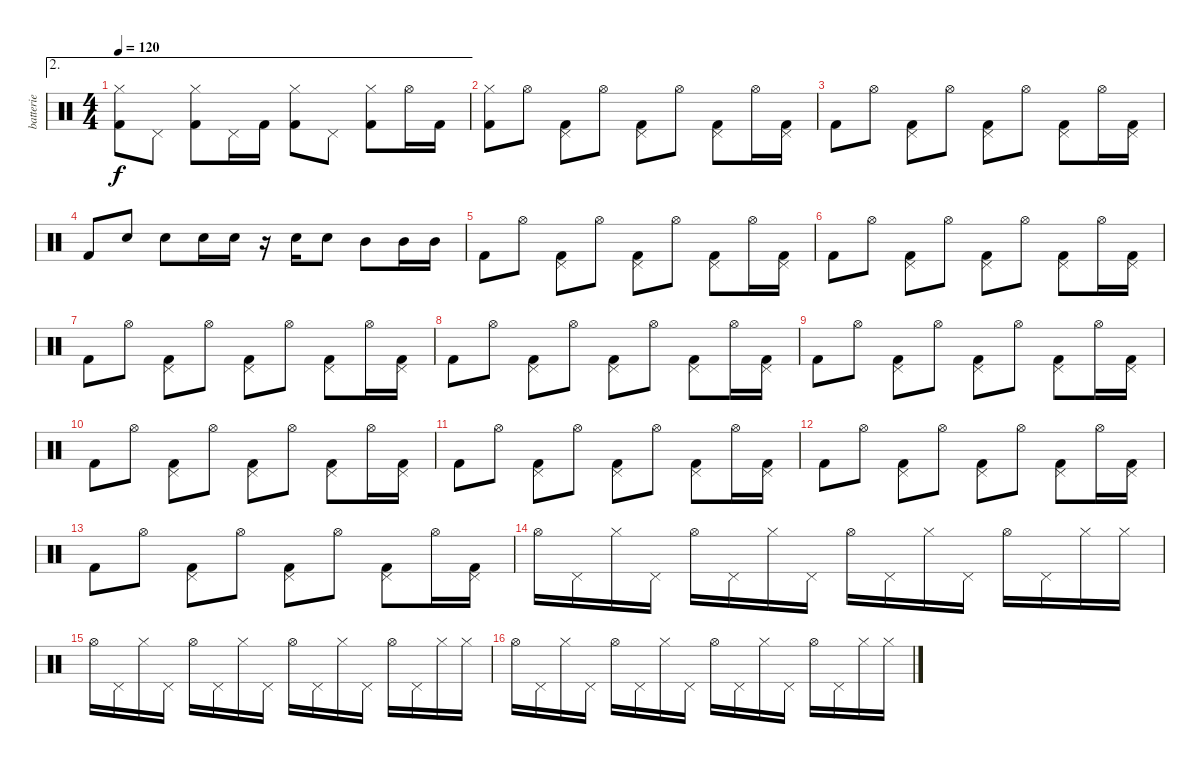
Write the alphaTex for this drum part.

\track ("batterie" "batterie") {instrument percussion}
\staff {score}
\articulation defaults
\ae 2
\ts (4 4)
\tempo 120
\clef neutral
\ks c
("Kick (hit) 2" "Hi-Hat (closed)").8{dy f} "Pedal Hi-Hat (hit)".8 ("Kick (hit) 2" "Hi-Hat (closed)").8 "Pedal Hi-Hat (hit)".16 "Kick (hit) 2".16 ("Kick (hit) 2" "Hi-Hat (closed)").8 "Pedal Hi-Hat (hit)".8 ("Kick (hit) 2" "Hi-Hat (closed)").8 "Hi-Hat (open)".16 "Kick (hit) 2".16 |
("Kick (hit) 2" "Hi-Hat (closed)").8 "Hi-Hat (open)".8 ("Kick (hit) 2" "Pedal Hi-Hat (hit)").8 "Hi-Hat (open)".8 ("Kick (hit) 2" "Pedal Hi-Hat (hit)").8 "Hi-Hat (open)".8 ("Kick (hit) 2" "Pedal Hi-Hat (hit)").8 "Hi-Hat (open)".16 ("Kick (hit) 2" "Pedal Hi-Hat (hit)").16 |
"Kick (hit) 2".8 "Hi-Hat (open)".8 ("Kick (hit) 2" "Pedal Hi-Hat (hit)").8 "Hi-Hat (open)".8 ("Kick (hit) 2" "Pedal Hi-Hat (hit)").8 "Hi-Hat (open)".8 ("Kick (hit) 2" "Pedal Hi-Hat (hit)").8 "Hi-Hat (open)".16 ("Kick (hit) 2" "Pedal Hi-Hat (hit)").16 |
"Kick (hit) 2".8 "Electric Snare (hit)".8 "Electric Snare (hit)".8 "Electric Snare (hit)".16 "Electric Snare (hit)".16 r.16 "Electric Snare (hit)".16 "Electric Snare (hit)".8 "Mid Tom (hit)".8 "Mid Tom (hit)".16 "Mid Tom (hit)".16 |
"Kick (hit) 2".8 "Hi-Hat (open)".8 ("Kick (hit) 2" "Pedal Hi-Hat (hit)").8 "Hi-Hat (open)".8 ("Kick (hit) 2" "Pedal Hi-Hat (hit)").8 "Hi-Hat (open)".8 ("Kick (hit) 2" "Pedal Hi-Hat (hit)").8 "Hi-Hat (open)".16 ("Kick (hit) 2" "Pedal Hi-Hat (hit)").16 |
"Kick (hit) 2".8 "Hi-Hat (open)".8 ("Kick (hit) 2" "Pedal Hi-Hat (hit)").8 "Hi-Hat (open)".8 ("Kick (hit) 2" "Pedal Hi-Hat (hit)").8 "Hi-Hat (open)".8 ("Kick (hit) 2" "Pedal Hi-Hat (hit)").8 "Hi-Hat (open)".16 ("Kick (hit) 2" "Pedal Hi-Hat (hit)").16 |
"Kick (hit) 2".8 "Hi-Hat (open)".8 ("Kick (hit) 2" "Pedal Hi-Hat (hit)").8 "Hi-Hat (open)".8 ("Kick (hit) 2" "Pedal Hi-Hat (hit)").8 "Hi-Hat (open)".8 ("Kick (hit) 2" "Pedal Hi-Hat (hit)").8 "Hi-Hat (open)".16 ("Kick (hit) 2" "Pedal Hi-Hat (hit)").16 |
"Kick (hit) 2".8 "Hi-Hat (open)".8 ("Kick (hit) 2" "Pedal Hi-Hat (hit)").8 "Hi-Hat (open)".8 ("Kick (hit) 2" "Pedal Hi-Hat (hit)").8 "Hi-Hat (open)".8 ("Kick (hit) 2" "Pedal Hi-Hat (hit)").8 "Hi-Hat (open)".16 ("Kick (hit) 2" "Pedal Hi-Hat (hit)").16 |
"Kick (hit) 2".8 "Hi-Hat (open)".8 ("Kick (hit) 2" "Pedal Hi-Hat (hit)").8 "Hi-Hat (open)".8 ("Kick (hit) 2" "Pedal Hi-Hat (hit)").8 "Hi-Hat (open)".8 ("Kick (hit) 2" "Pedal Hi-Hat (hit)").8 "Hi-Hat (open)".16 ("Kick (hit) 2" "Pedal Hi-Hat (hit)").16 |
"Kick (hit) 2".8 "Hi-Hat (open)".8 ("Kick (hit) 2" "Pedal Hi-Hat (hit)").8 "Hi-Hat (open)".8 ("Kick (hit) 2" "Pedal Hi-Hat (hit)").8 "Hi-Hat (open)".8 ("Kick (hit) 2" "Pedal Hi-Hat (hit)").8 "Hi-Hat (open)".16 ("Kick (hit) 2" "Pedal Hi-Hat (hit)").16 |
"Kick (hit) 2".8 "Hi-Hat (open)".8 ("Kick (hit) 2" "Pedal Hi-Hat (hit)").8 "Hi-Hat (open)".8 ("Kick (hit) 2" "Pedal Hi-Hat (hit)").8 "Hi-Hat (open)".8 ("Kick (hit) 2" "Pedal Hi-Hat (hit)").8 "Hi-Hat (open)".16 ("Kick (hit) 2" "Pedal Hi-Hat (hit)").16 |
"Kick (hit) 2".8 "Hi-Hat (open)".8 ("Kick (hit) 2" "Pedal Hi-Hat (hit)").8 "Hi-Hat (open)".8 ("Kick (hit) 2" "Pedal Hi-Hat (hit)").8 "Hi-Hat (open)".8 ("Kick (hit) 2" "Pedal Hi-Hat (hit)").8 "Hi-Hat (open)".16 ("Kick (hit) 2" "Pedal Hi-Hat (hit)").16 |
"Kick (hit) 2".8 "Hi-Hat (open)".8 ("Kick (hit) 2" "Pedal Hi-Hat (hit)").8 "Hi-Hat (open)".8 ("Kick (hit) 2" "Pedal Hi-Hat (hit)").8 "Hi-Hat (open)".8 ("Kick (hit) 2" "Pedal Hi-Hat (hit)").8 "Hi-Hat (open)".16 ("Kick (hit) 2" "Pedal Hi-Hat (hit)").16 |
"Hi-Hat (open)".16 "Pedal Hi-Hat (hit)".16 "Hi-Hat (closed)".16 "Pedal Hi-Hat (hit)".16 "Hi-Hat (open)".16 "Pedal Hi-Hat (hit)".16 "Hi-Hat (closed)".16 "Pedal Hi-Hat (hit)".16 "Hi-Hat (open)".16 "Pedal Hi-Hat (hit)".16 "Hi-Hat (closed)".16 "Pedal Hi-Hat (hit)".16 "Hi-Hat (open)".16 "Pedal Hi-Hat (hit)".16 "Hi-Hat (closed)".16 "Hi-Hat (closed)".16 |
"Hi-Hat (open)".16 "Pedal Hi-Hat (hit)".16 "Hi-Hat (closed)".16 "Pedal Hi-Hat (hit)".16 "Hi-Hat (open)".16 "Pedal Hi-Hat (hit)".16 "Hi-Hat (closed)".16 "Pedal Hi-Hat (hit)".16 "Hi-Hat (open)".16 "Pedal Hi-Hat (hit)".16 "Hi-Hat (closed)".16 "Pedal Hi-Hat (hit)".16 "Hi-Hat (open)".16 "Pedal Hi-Hat (hit)".16 "Hi-Hat (closed)".16 "Hi-Hat (closed)".16 |
"Hi-Hat (open)".16 "Pedal Hi-Hat (hit)".16 "Hi-Hat (closed)".16 "Pedal Hi-Hat (hit)".16 "Hi-Hat (open)".16 "Pedal Hi-Hat (hit)".16 "Hi-Hat (closed)".16 "Pedal Hi-Hat (hit)".16 "Hi-Hat (open)".16 "Pedal Hi-Hat (hit)".16 "Hi-Hat (closed)".16 "Pedal Hi-Hat (hit)".16 "Hi-Hat (open)".16 "Pedal Hi-Hat (hit)".16 "Hi-Hat (closed)".16 "Hi-Hat (closed)".16
